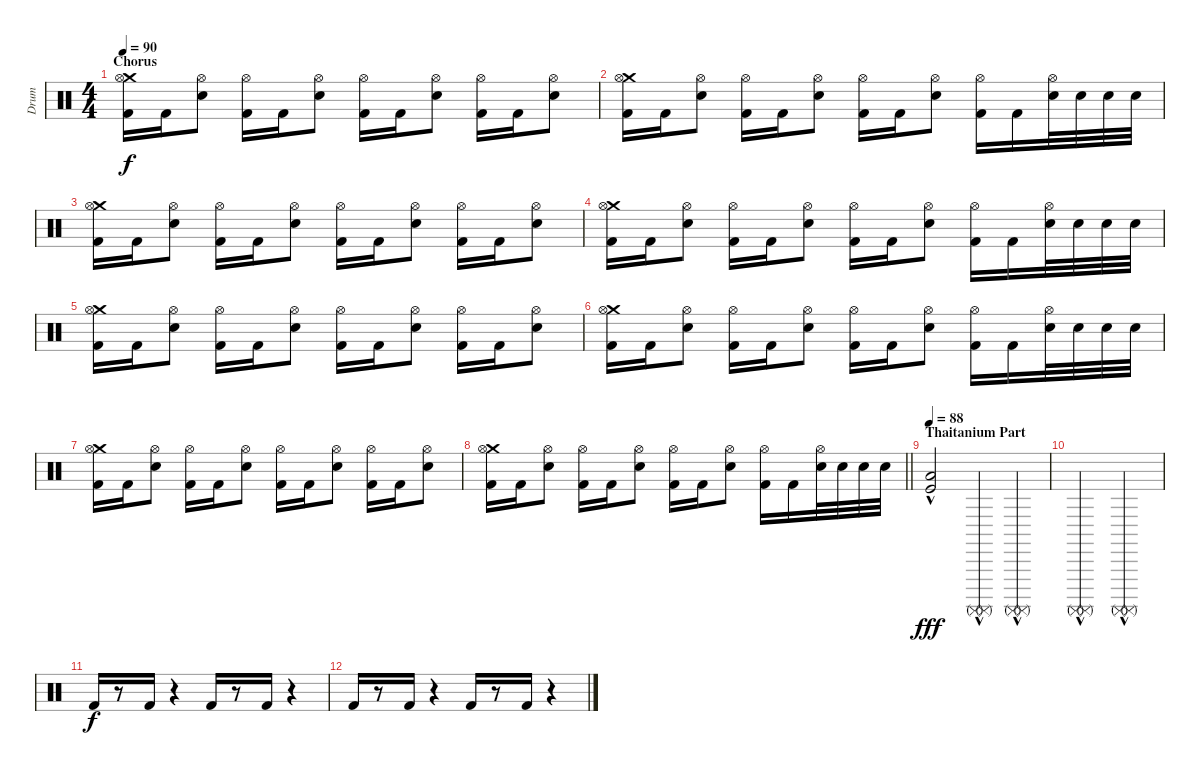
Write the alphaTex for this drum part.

\track ("Drum" "Drum") {instrument percussion}
\staff {score}
\articulation defaults
\ts (4 4)
\section ("" "Chorus")
\tempo 90
\clef neutral
\ks c
("Crash medium (hit)" "Hi-Hat (open)" "Kick (hit) 2").16{dy f} "Kick (hit) 2".16 ("Hi-Hat (open)" "Electric Snare (hit)").8 ("Hi-Hat (open)" "Kick (hit) 2").16 "Kick (hit) 2".16 ("Hi-Hat (open)" "Electric Snare (hit)").8 ("Hi-Hat (open)" "Kick (hit) 2").16 "Kick (hit) 2".16 ("Hi-Hat (open)" "Electric Snare (hit)").8 ("Hi-Hat (open)" "Kick (hit) 2").16 "Kick (hit) 2".16 ("Hi-Hat (open)" "Electric Snare (hit)").8 |
("Crash medium (hit)" "Hi-Hat (open)" "Kick (hit) 2").16 "Kick (hit) 2".16 ("Hi-Hat (open)" "Electric Snare (hit)").8 ("Hi-Hat (open)" "Kick (hit) 2").16 "Kick (hit) 2".16 ("Hi-Hat (open)" "Electric Snare (hit)").8 ("Hi-Hat (open)" "Kick (hit) 2").16 "Kick (hit) 2".16 ("Hi-Hat (open)" "Electric Snare (hit)").8 ("Hi-Hat (open)" "Kick (hit) 2").16 "Kick (hit) 2".16 ("Hi-Hat (open)" "Electric Snare (hit)").32 "Electric Snare (hit)".32 "Electric Snare (hit)".32 "Electric Snare (hit)".32 |
("Crash medium (hit)" "Hi-Hat (open)" "Kick (hit) 2").16 "Kick (hit) 2".16 ("Hi-Hat (open)" "Electric Snare (hit)").8 ("Hi-Hat (open)" "Kick (hit) 2").16 "Kick (hit) 2".16 ("Hi-Hat (open)" "Electric Snare (hit)").8 ("Hi-Hat (open)" "Kick (hit) 2").16 "Kick (hit) 2".16 ("Hi-Hat (open)" "Electric Snare (hit)").8 ("Hi-Hat (open)" "Kick (hit) 2").16 "Kick (hit) 2".16 ("Hi-Hat (open)" "Electric Snare (hit)").8 |
("Crash medium (hit)" "Hi-Hat (open)" "Kick (hit) 2").16 "Kick (hit) 2".16 ("Hi-Hat (open)" "Electric Snare (hit)").8 ("Hi-Hat (open)" "Kick (hit) 2").16 "Kick (hit) 2".16 ("Hi-Hat (open)" "Electric Snare (hit)").8 ("Hi-Hat (open)" "Kick (hit) 2").16 "Kick (hit) 2".16 ("Hi-Hat (open)" "Electric Snare (hit)").8 ("Hi-Hat (open)" "Kick (hit) 2").16 "Kick (hit) 2".16 ("Hi-Hat (open)" "Electric Snare (hit)").32 "Electric Snare (hit)".32 "Electric Snare (hit)".32 "Electric Snare (hit)".32 |
("Crash medium (hit)" "Hi-Hat (open)" "Kick (hit) 2").16 "Kick (hit) 2".16 ("Hi-Hat (open)" "Electric Snare (hit)").8 ("Hi-Hat (open)" "Kick (hit) 2").16 "Kick (hit) 2".16 ("Hi-Hat (open)" "Electric Snare (hit)").8 ("Hi-Hat (open)" "Kick (hit) 2").16 "Kick (hit) 2".16 ("Hi-Hat (open)" "Electric Snare (hit)").8 ("Hi-Hat (open)" "Kick (hit) 2").16 "Kick (hit) 2".16 ("Hi-Hat (open)" "Electric Snare (hit)").8 |
("Crash medium (hit)" "Hi-Hat (open)" "Kick (hit) 2").16 "Kick (hit) 2".16 ("Hi-Hat (open)" "Electric Snare (hit)").8 ("Hi-Hat (open)" "Kick (hit) 2").16 "Kick (hit) 2".16 ("Hi-Hat (open)" "Electric Snare (hit)").8 ("Hi-Hat (open)" "Kick (hit) 2").16 "Kick (hit) 2".16 ("Hi-Hat (open)" "Electric Snare (hit)").8 ("Hi-Hat (open)" "Kick (hit) 2").16 "Kick (hit) 2".16 ("Hi-Hat (open)" "Electric Snare (hit)").32 "Electric Snare (hit)".32 "Electric Snare (hit)".32 "Electric Snare (hit)".32 |
("Crash medium (hit)" "Hi-Hat (open)" "Kick (hit) 2").16 "Kick (hit) 2".16 ("Hi-Hat (open)" "Electric Snare (hit)").8 ("Hi-Hat (open)" "Kick (hit) 2").16 "Kick (hit) 2".16 ("Hi-Hat (open)" "Electric Snare (hit)").8 ("Hi-Hat (open)" "Kick (hit) 2").16 "Kick (hit) 2".16 ("Hi-Hat (open)" "Electric Snare (hit)").8 ("Hi-Hat (open)" "Kick (hit) 2").16 "Kick (hit) 2".16 ("Hi-Hat (open)" "Electric Snare (hit)").8 |
\barLineRight lightlight
("Crash medium (hit)" "Hi-Hat (open)" "Kick (hit) 2").16 "Kick (hit) 2".16 ("Hi-Hat (open)" "Electric Snare (hit)").8 ("Hi-Hat (open)" "Kick (hit) 2").16 "Kick (hit) 2".16 ("Hi-Hat (open)" "Electric Snare (hit)").8 ("Hi-Hat (open)" "Kick (hit) 2").16 "Kick (hit) 2".16 ("Hi-Hat (open)" "Electric Snare (hit)").8 ("Hi-Hat (open)" "Kick (hit) 2").16 "Kick (hit) 2".16 ("Hi-Hat (open)" "Electric Snare (hit)").32 "Electric Snare (hit)".32 "Electric Snare (hit)".32 "Electric Snare (hit)".32 |
\section ("" "Thaitanium Part")
\tempo 88
("Low Floor Tom (hit)" "Kick (hit)"{hac}).2{dy fff} ("Surdo (mute)"{hac} "Surdo (mute)"{hac}).4 ("Surdo (mute)"{hac} "Surdo (mute)"{hac}).4 |
("Surdo (mute)"{hac} "Surdo (mute)"{hac}).2 ("Surdo (mute)"{hac} "Surdo (mute)"{hac}).2 |
"Kick (hit) 2".16{dy f} r.8 "Kick (hit) 2".16 r.4 "Kick (hit) 2".16 r.8 "Kick (hit) 2".16 r.4 |
"Kick (hit) 2".16 r.8 "Kick (hit) 2".16 r.4 "Kick (hit) 2".16 r.8 "Kick (hit) 2".16 r.4
